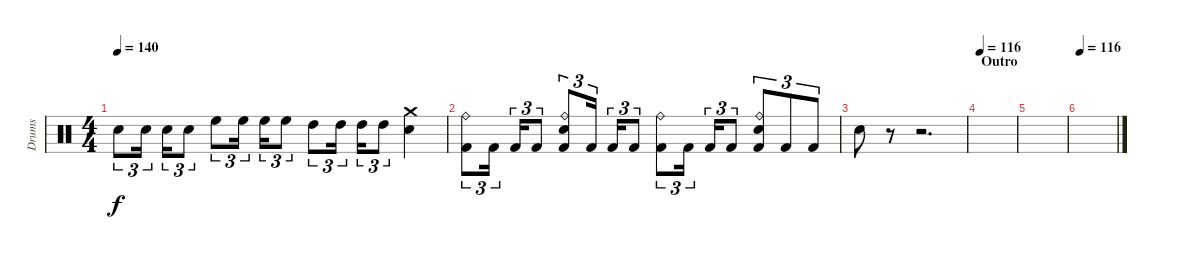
\track ("Drums" "Drums") {instrument percussion}
\staff {score}
\articulation defaults
\ts (4 4)
\tempo 140
\clef neutral
\ks c "Electric Snare (hit)".8{tu (3 2) dy f} "Electric Snare (hit)".16{tu (3 2)} "Electric Snare (hit)".16{tu (3 2)} "Electric Snare (hit)".8{tu (3 2)} "High Floor Tom (hit)".8{tu (3 2)} "High Floor Tom (hit)".16{tu (3 2)} "High Floor Tom (hit)".16{tu (3 2)} "High Floor Tom (hit)".8{tu (3 2)} "High Tom (hit)".8{tu (3 2)} "High Tom (hit)".16{tu (3 2)} "High Tom (hit)".16{tu (3 2)} "High Tom (hit)".8{tu (3 2)}
("Crash medium (hit)" "Electric Snare (hit)").4 |
("Ride (bell)" "Kick (hit) 2").8{tu (3 2)} "Kick (hit) 2".16{tu (3 2)} "Kick (hit) 2".16{tu (3 2)} "Kick (hit) 2".8{tu (3 2)} ("Ride (bell)" "Electric Snare (hit)" "Kick (hit) 2").8{tu (3 2)} "Kick (hit) 2".16{tu (3 2)} "Kick (hit) 2".16{tu (3 2)} "Kick (hit) 2".8{tu (3 2)} ("Ride (bell)" "Kick (hit) 2").8{tu (3 2)} "Kick (hit) 2".16{tu (3 2)} "Kick (hit) 2".16{tu (3 2)} "Kick (hit) 2".8{tu (3 2)} ("Ride (bell)" "Electric Snare (hit)" "Kick (hit) 2").8{tu (3 2)} "Kick (hit) 2".8{tu (3 2)} "Kick (hit) 2".8{tu (3 2)} |
"Electric Snare (hit)".8 r.8 r.2{d} |
\section ("" "Outro")
\tempo 116
|
|
\tempo 116
